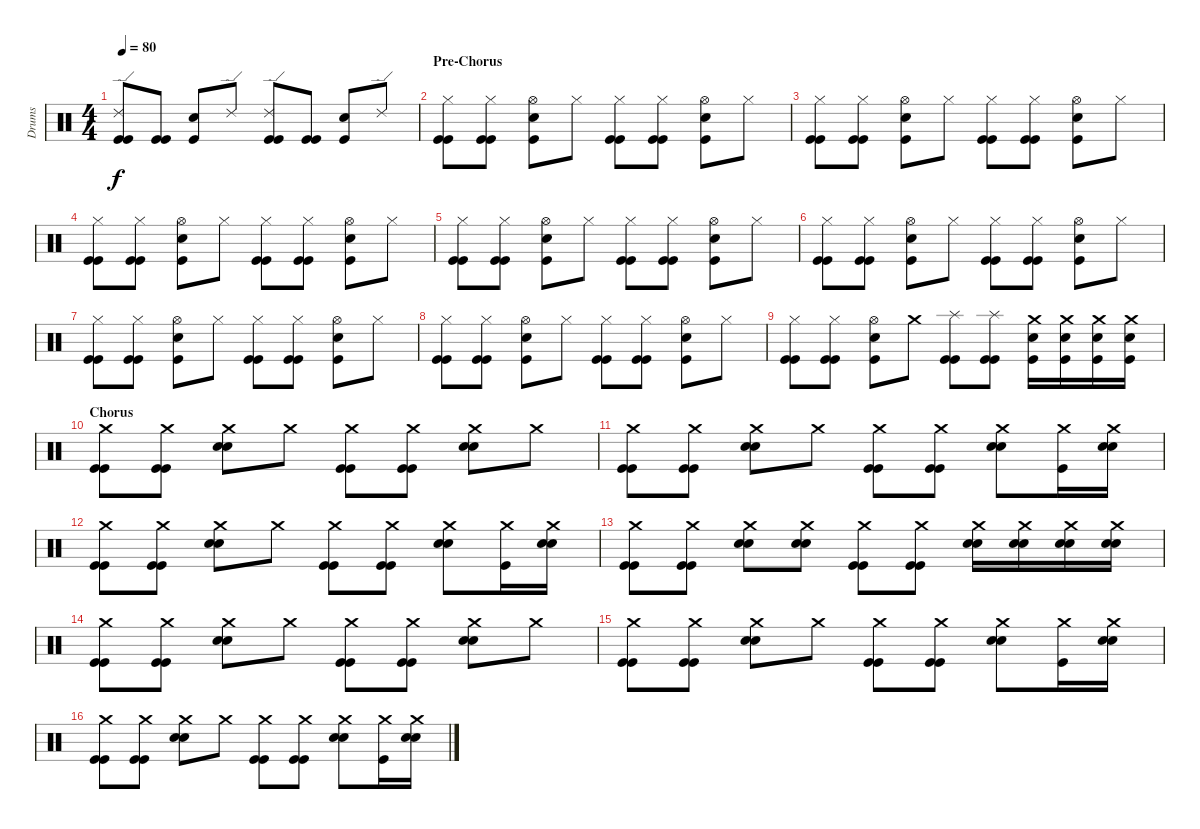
\track ("Drums" "Drums") {instrument percussion}
\staff {score}
\articulation defaults
\ts (4 4)
\tempo 80
\clef neutral
\ks c
("Ride (edge) 2" "Kick (hit)" "Kick (hit)").8{dy f} ("Kick (hit)" "Kick (hit)").8 ("Snare (hit) 2" "Kick (hit)").8 "Ride (edge) 2".8 ("Ride (edge) 2" "Kick (hit)" "Kick (hit)").8 ("Kick (hit)" "Kick (hit)").8 ("Snare (hit) 2" "Kick (hit)").8 "Ride (edge) 2".8 |
\section ("" "Pre-Chorus")
("Hi-Hat (closed)" "Kick (hit)" "Kick (hit)").8{volume 16} ("Hi-Hat (closed)" "Kick (hit)" "Kick (hit)").8 ("Hi-Hat (open)" "Snare (hit) 2" "Kick (hit)").8 "Hi-Hat (closed)".8 ("Hi-Hat (closed)" "Kick (hit)" "Kick (hit)").8 ("Hi-Hat (closed)" "Kick (hit)" "Kick (hit)").8 ("Hi-Hat (open)" "Snare (hit) 2" "Kick (hit)").8 "Hi-Hat (closed)".8 |
("Hi-Hat (closed)" "Kick (hit)" "Kick (hit)").8{volume 16} ("Hi-Hat (closed)" "Kick (hit)" "Kick (hit)").8 ("Hi-Hat (open)" "Snare (hit) 2" "Kick (hit)").8 "Hi-Hat (closed)".8 ("Hi-Hat (closed)" "Kick (hit)" "Kick (hit)").8 ("Hi-Hat (closed)" "Kick (hit)" "Kick (hit)").8 ("Hi-Hat (open)" "Snare (hit) 2" "Kick (hit)").8 "Hi-Hat (closed)".8 |
("Hi-Hat (closed)" "Kick (hit)" "Kick (hit)").8{volume 16} ("Hi-Hat (closed)" "Kick (hit)" "Kick (hit)").8 ("Hi-Hat (open)" "Snare (hit) 2" "Kick (hit)").8 "Hi-Hat (closed)".8 ("Hi-Hat (closed)" "Kick (hit)" "Kick (hit)").8 ("Hi-Hat (closed)" "Kick (hit)" "Kick (hit)").8 ("Hi-Hat (open)" "Snare (hit) 2" "Kick (hit)").8 "Hi-Hat (closed)".8 |
("Hi-Hat (closed)" "Kick (hit)" "Kick (hit)").8{volume 16} ("Hi-Hat (closed)" "Kick (hit)" "Kick (hit)").8 ("Hi-Hat (open)" "Snare (hit) 2" "Kick (hit)").8 "Hi-Hat (closed)".8 ("Hi-Hat (closed)" "Kick (hit)" "Kick (hit)").8 ("Hi-Hat (closed)" "Kick (hit)" "Kick (hit)").8 ("Hi-Hat (open)" "Snare (hit) 2" "Kick (hit)").8 "Hi-Hat (closed)".8 |
("Hi-Hat (closed)" "Kick (hit)" "Kick (hit)").8{volume 16} ("Hi-Hat (closed)" "Kick (hit)" "Kick (hit)").8 ("Hi-Hat (open)" "Snare (hit) 2" "Kick (hit)").8 "Hi-Hat (closed)".8 ("Hi-Hat (closed)" "Kick (hit)" "Kick (hit)").8 ("Hi-Hat (closed)" "Kick (hit)" "Kick (hit)").8 ("Hi-Hat (open)" "Snare (hit) 2" "Kick (hit)").8 "Hi-Hat (closed)".8 |
("Hi-Hat (closed)" "Kick (hit)" "Kick (hit)").8{volume 16} ("Hi-Hat (closed)" "Kick (hit)" "Kick (hit)").8 ("Hi-Hat (open)" "Snare (hit) 2" "Kick (hit)").8 "Hi-Hat (closed)".8 ("Hi-Hat (closed)" "Kick (hit)" "Kick (hit)").8 ("Hi-Hat (closed)" "Kick (hit)" "Kick (hit)").8 ("Hi-Hat (open)" "Snare (hit) 2" "Kick (hit)").8 "Hi-Hat (closed)".8 |
("Hi-Hat (closed)" "Kick (hit)" "Kick (hit)").8{volume 16} ("Hi-Hat (closed)" "Kick (hit)" "Kick (hit)").8 ("Hi-Hat (open)" "Snare (hit) 2" "Kick (hit)").8 "Hi-Hat (closed)".8 ("Hi-Hat (closed)" "Kick (hit)" "Kick (hit)").8 ("Hi-Hat (closed)" "Kick (hit)" "Kick (hit)").8 ("Hi-Hat (open)" "Snare (hit) 2" "Kick (hit)").8 "Hi-Hat (closed)".8 |
("Hi-Hat (closed)" "Kick (hit)" "Kick (hit)").8{volume 16} ("Hi-Hat (closed)" "Kick (hit)" "Kick (hit)").8 ("Hi-Hat (open)" "Snare (hit) 2" "Kick (hit)").8 "Crash medium (hit)".8 ("Splash (hit)" "Kick (hit)" "Kick (hit)").8 ("Splash (hit)" "Kick (hit)" "Kick (hit)").8 ("Crash medium (hit)" "Snare (hit) 2" "Kick (hit)").16 ("Crash medium (hit)" "Snare (hit) 2" "Kick (hit)").16 ("Crash medium (hit)" "Snare (hit) 2" "Kick (hit)").16 ("Crash medium (hit)" "Snare (hit) 2" "Kick (hit)").16 |
\section ("" "Chorus")
("Crash medium (hit)" "Kick (hit)" "Kick (hit)").8 ("Crash medium (hit)" "Kick (hit)" "Kick (hit)").8 ("Crash medium (hit)" "Snare (hit) 2" "Snare (hit) 2").8 "Crash medium (hit)".8 ("Crash medium (hit)" "Kick (hit)" "Kick (hit)").8 ("Crash medium (hit)" "Kick (hit)" "Kick (hit)").8 ("Crash medium (hit)" "Snare (hit) 2" "Snare (hit) 2").8 "Crash medium (hit)".8 |
("Crash medium (hit)" "Kick (hit)" "Kick (hit)").8 ("Crash medium (hit)" "Kick (hit)" "Kick (hit)").8 ("Crash medium (hit)" "Snare (hit) 2" "Snare (hit) 2").8 "Crash medium (hit)".8 ("Crash medium (hit)" "Kick (hit)" "Kick (hit)").8 ("Crash medium (hit)" "Kick (hit)" "Kick (hit)").8 ("Crash medium (hit)" "Snare (hit) 2" "Snare (hit) 2").8 ("Crash medium (hit)" "Kick (hit)").16 ("Crash medium (hit)" "Snare (hit) 2" "Snare (hit) 2").16 |
("Crash medium (hit)" "Kick (hit)" "Kick (hit)").8 ("Crash medium (hit)" "Kick (hit)" "Kick (hit)").8 ("Crash medium (hit)" "Snare (hit) 2" "Snare (hit) 2").8 "Crash medium (hit)".8 ("Crash medium (hit)" "Kick (hit)" "Kick (hit)").8 ("Crash medium (hit)" "Kick (hit)" "Kick (hit)").8 ("Crash medium (hit)" "Snare (hit) 2" "Snare (hit) 2").8 ("Crash medium (hit)" "Kick (hit)").16 ("Crash medium (hit)" "Snare (hit) 2" "Snare (hit) 2").16 |
("Crash medium (hit)" "Kick (hit)" "Kick (hit)").8 ("Crash medium (hit)" "Kick (hit)" "Kick (hit)").8 ("Crash medium (hit)" "Snare (hit) 2" "Snare (hit) 2").8 ("Crash medium (hit)" "Snare (hit) 2" "Snare (hit) 2").8 ("Crash medium (hit)" "Kick (hit)" "Kick (hit)").8 ("Crash medium (hit)" "Kick (hit)" "Kick (hit)").8 ("Crash medium (hit)" "Snare (hit) 2" "Snare (hit) 2").16 ("Crash medium (hit)" "Snare (hit) 2" "Snare (hit) 2").16 ("Crash medium (hit)" "Snare (hit) 2" "Snare (hit) 2").16 ("Crash medium (hit)" "Snare (hit) 2" "Snare (hit) 2").16 |
("Crash medium (hit)" "Kick (hit)" "Kick (hit)").8 ("Crash medium (hit)" "Kick (hit)" "Kick (hit)").8 ("Crash medium (hit)" "Snare (hit) 2" "Snare (hit) 2").8 "Crash medium (hit)".8 ("Crash medium (hit)" "Kick (hit)" "Kick (hit)").8 ("Crash medium (hit)" "Kick (hit)" "Kick (hit)").8 ("Crash medium (hit)" "Snare (hit) 2" "Snare (hit) 2").8 "Crash medium (hit)".8 |
("Crash medium (hit)" "Kick (hit)" "Kick (hit)").8 ("Crash medium (hit)" "Kick (hit)" "Kick (hit)").8 ("Crash medium (hit)" "Snare (hit) 2" "Snare (hit) 2").8 "Crash medium (hit)".8 ("Crash medium (hit)" "Kick (hit)" "Kick (hit)").8 ("Crash medium (hit)" "Kick (hit)" "Kick (hit)").8 ("Crash medium (hit)" "Snare (hit) 2" "Snare (hit) 2").8 ("Crash medium (hit)" "Kick (hit)").16 ("Crash medium (hit)" "Snare (hit) 2" "Snare (hit) 2").16 |
("Crash medium (hit)" "Kick (hit)" "Kick (hit)").8 ("Crash medium (hit)" "Kick (hit)" "Kick (hit)").8 ("Crash medium (hit)" "Snare (hit) 2" "Snare (hit) 2").8 "Crash medium (hit)".8 ("Crash medium (hit)" "Kick (hit)" "Kick (hit)").8 ("Crash medium (hit)" "Kick (hit)" "Kick (hit)").8 ("Crash medium (hit)" "Snare (hit) 2" "Snare (hit) 2").8 ("Crash medium (hit)" "Kick (hit)").16 ("Crash medium (hit)" "Snare (hit) 2" "Snare (hit) 2").16
